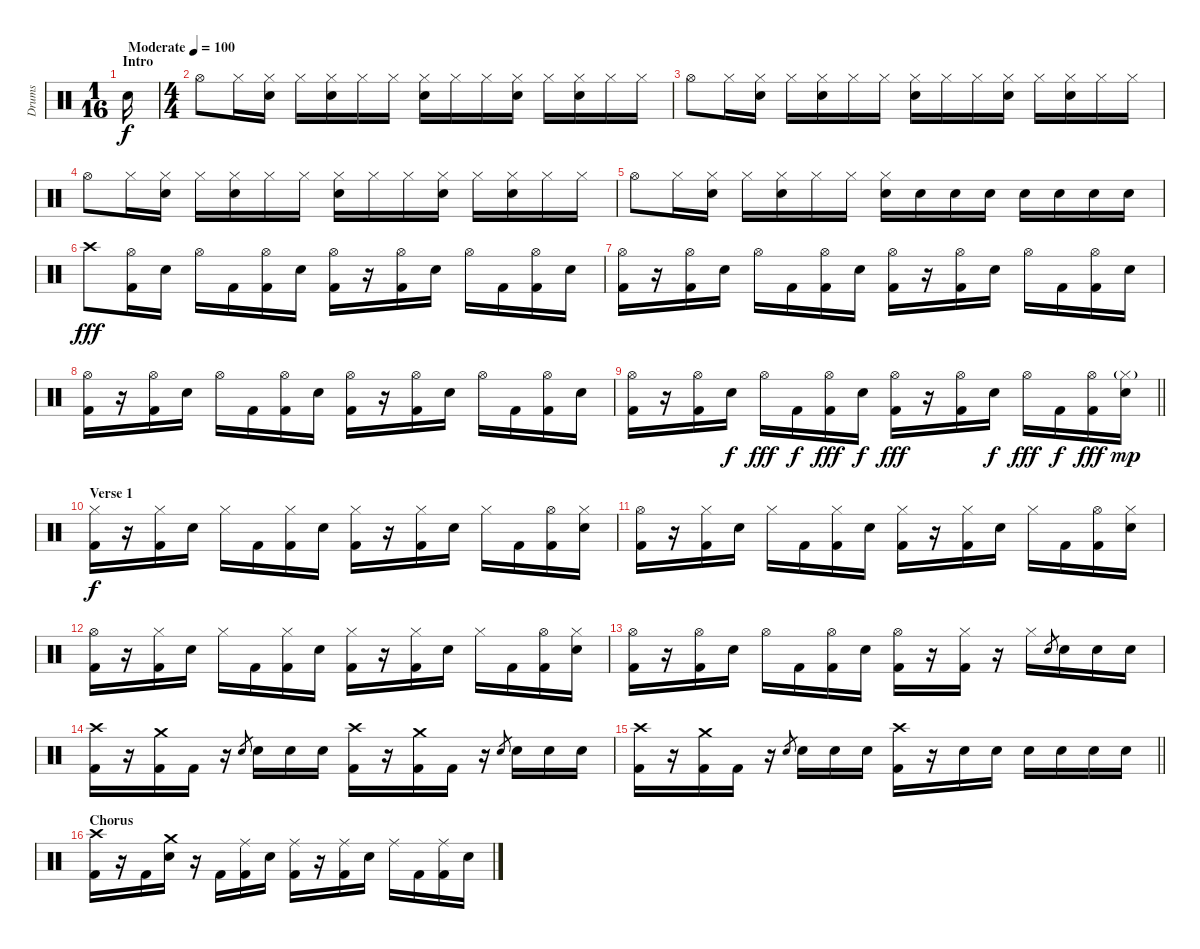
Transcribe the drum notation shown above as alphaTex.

\track ("Drums" "Drums") {instrument percussion}
\staff {score}
\articulation defaults
\ts (1 16)
\section ("" "Intro")
\tempo (100 "Moderate")
\clef neutral
\ks c "Electric Snare (hit)".16{dy f}
|
\ts (4 4)
"Hi-Hat (open)".8 "Hi-Hat (closed)".16 ("Hi-Hat (closed)" "Electric Snare (hit)").16 "Hi-Hat (closed)".16 ("Hi-Hat (closed)" "Electric Snare (hit)").16 "Hi-Hat (closed)".16 "Hi-Hat (closed)".16 ("Hi-Hat (closed)" "Electric Snare (hit)").16 "Hi-Hat (closed)".16 "Hi-Hat (closed)".16 ("Hi-Hat (closed)" "Electric Snare (hit)").16 "Hi-Hat (closed)".16 ("Hi-Hat (closed)" "Electric Snare (hit)").16 "Hi-Hat (closed)".16 "Hi-Hat (closed)".16 |
"Hi-Hat (open)".8 "Hi-Hat (closed)".16 ("Hi-Hat (closed)" "Electric Snare (hit)").16 "Hi-Hat (closed)".16 ("Hi-Hat (closed)" "Electric Snare (hit)").16 "Hi-Hat (closed)".16 "Hi-Hat (closed)".16 ("Hi-Hat (closed)" "Electric Snare (hit)").16 "Hi-Hat (closed)".16 "Hi-Hat (closed)".16 ("Hi-Hat (closed)" "Electric Snare (hit)").16 "Hi-Hat (closed)".16 ("Hi-Hat (closed)" "Electric Snare (hit)").16 "Hi-Hat (closed)".16 "Hi-Hat (closed)".16 |
"Hi-Hat (open)".8 "Hi-Hat (closed)".16 ("Hi-Hat (closed)" "Electric Snare (hit)").16 "Hi-Hat (closed)".16 ("Hi-Hat (closed)" "Electric Snare (hit)").16 "Hi-Hat (closed)".16 "Hi-Hat (closed)".16 ("Hi-Hat (closed)" "Electric Snare (hit)").16 "Hi-Hat (closed)".16 "Hi-Hat (closed)".16 ("Hi-Hat (closed)" "Electric Snare (hit)").16 "Hi-Hat (closed)".16 ("Hi-Hat (closed)" "Electric Snare (hit)").16 "Hi-Hat (closed)".16 "Hi-Hat (closed)".16 |
"Hi-Hat (open)".8 "Hi-Hat (closed)".16 ("Hi-Hat (closed)" "Electric Snare (hit)").16 "Hi-Hat (closed)".16 ("Hi-Hat (closed)" "Electric Snare (hit)").16 "Hi-Hat (closed)".16 "Hi-Hat (closed)".16 ("Hi-Hat (closed)" "Electric Snare (hit)").16 "Electric Snare (hit)".16 "Electric Snare (hit)".16 "Electric Snare (hit)".16 "Electric Snare (hit)".16 "Electric Snare (hit)".16 "Electric Snare (hit)".16 "Electric Snare (hit)".16 |
"Crash high (hit)".8{dy fff} ("Hi-Hat (open)" "Kick (hit) 2").16 "Electric Snare (hit)".16 "Hi-Hat (open)".16 "Kick (hit) 2".16 ("Hi-Hat (open)" "Kick (hit) 2").16 "Electric Snare (hit)".16 ("Hi-Hat (open)" "Kick (hit) 2").16 r.16 ("Hi-Hat (open)" "Kick (hit) 2").16 "Electric Snare (hit)".16 "Hi-Hat (open)".16 "Kick (hit) 2".16 ("Hi-Hat (open)" "Kick (hit) 2").16 "Electric Snare (hit)".16 |
("Hi-Hat (open)" "Kick (hit) 2").16 r.16 ("Hi-Hat (open)" "Kick (hit) 2").16 "Electric Snare (hit)".16 "Hi-Hat (open)".16 "Kick (hit) 2".16 ("Hi-Hat (open)" "Kick (hit) 2").16 "Electric Snare (hit)".16 ("Hi-Hat (open)" "Kick (hit) 2").16 r.16 ("Hi-Hat (open)" "Kick (hit) 2").16 "Electric Snare (hit)".16 "Hi-Hat (open)".16 "Kick (hit) 2".16 ("Hi-Hat (open)" "Kick (hit) 2").16 "Electric Snare (hit)".16 |
("Hi-Hat (open)" "Kick (hit) 2").16 r.16 ("Hi-Hat (open)" "Kick (hit) 2").16 "Electric Snare (hit)".16 "Hi-Hat (open)".16 "Kick (hit) 2".16 ("Hi-Hat (open)" "Kick (hit) 2").16 "Electric Snare (hit)".16 ("Hi-Hat (open)" "Kick (hit) 2").16 r.16 ("Hi-Hat (open)" "Kick (hit) 2").16 "Electric Snare (hit)".16 "Hi-Hat (open)".16 "Kick (hit) 2".16 ("Hi-Hat (open)" "Kick (hit) 2").16 "Electric Snare (hit)".16 |
\barLineRight lightlight
("Hi-Hat (open)" "Kick (hit) 2").16 r.16 ("Hi-Hat (open)" "Kick (hit) 2").16 "Electric Snare (hit)".16{dy f} "Hi-Hat (open)".16{dy fff} "Kick (hit) 2".16{dy f} ("Hi-Hat (open)" "Kick (hit) 2").16{dy fff} "Electric Snare (hit)".16{dy f} ("Hi-Hat (open)" "Kick (hit) 2").16{dy fff} r.16 ("Hi-Hat (open)" "Kick (hit) 2").16 "Electric Snare (hit)".16{dy f} "Hi-Hat (open)".16{dy fff} "Kick (hit) 2".16{dy f} ("Hi-Hat (open)" "Kick (hit) 2").16{dy fff} ("Hi-Hat (closed)"{g} "Electric Snare (hit)").16{dy mp} |
\section ("" "Verse 1")
("Hi-Hat (closed)" "Kick (hit) 2").16{dy f} r.16 ("Hi-Hat (closed)" "Kick (hit) 2").16 "Electric Snare (hit)".16 "Hi-Hat (closed)".16 "Kick (hit) 2".16 ("Hi-Hat (closed)" "Kick (hit) 2").16 "Electric Snare (hit)".16 ("Hi-Hat (closed)" "Kick (hit) 2").16 r.16 ("Hi-Hat (closed)" "Kick (hit) 2").16 "Electric Snare (hit)".16 "Hi-Hat (closed)".16 "Kick (hit) 2".16 ("Hi-Hat (open)" "Kick (hit) 2").16 ("Hi-Hat (closed)" "Electric Snare (hit)").16 |
("Hi-Hat (open)" "Kick (hit) 2").16 r.16 ("Hi-Hat (closed)" "Kick (hit) 2").16 "Electric Snare (hit)".16 "Hi-Hat (closed)".16 "Kick (hit) 2".16 ("Hi-Hat (closed)" "Kick (hit) 2").16 "Electric Snare (hit)".16 ("Hi-Hat (closed)" "Kick (hit) 2").16 r.16 ("Hi-Hat (closed)" "Kick (hit) 2").16 "Electric Snare (hit)".16 "Hi-Hat (closed)".16 "Kick (hit) 2".16 ("Hi-Hat (open)" "Kick (hit) 2").16 ("Hi-Hat (closed)" "Electric Snare (hit)").16 |
("Hi-Hat (open)" "Kick (hit) 2").16 r.16 ("Hi-Hat (closed)" "Kick (hit) 2").16 "Electric Snare (hit)".16 "Hi-Hat (closed)".16 "Kick (hit) 2".16 ("Hi-Hat (closed)" "Kick (hit) 2").16 "Electric Snare (hit)".16 ("Hi-Hat (closed)" "Kick (hit) 2").16 r.16 ("Hi-Hat (closed)" "Kick (hit) 2").16 "Electric Snare (hit)".16 "Hi-Hat (closed)".16 "Kick (hit) 2".16 ("Hi-Hat (open)" "Kick (hit) 2").16 ("Hi-Hat (closed)" "Electric Snare (hit)").16 |
("Hi-Hat (open)" "Kick (hit) 2").16 r.16 ("Hi-Hat (open)" "Kick (hit) 2").16 "Electric Snare (hit)".16 "Hi-Hat (open)".16 "Kick (hit) 2".16 ("Hi-Hat (open)" "Kick (hit) 2").16 "Electric Snare (hit)".16 ("Hi-Hat (open)" "Kick (hit) 2").16 r.16 ("Hi-Hat (closed)" "Kick (hit) 2").16 r.16 "Hi-Hat (closed)".16 "Electric Snare (hit)".8{gr} "Electric Snare (hit)".16 "Electric Snare (hit)".16 "Electric Snare (hit)".16 |
("Crash high (hit)" "Kick (hit) 2").16 r.16 ("Crash medium (hit)" "Kick (hit) 2").16 "Kick (hit) 2".16 r.16 "Electric Snare (hit)".8{gr} "Electric Snare (hit)".16 "Electric Snare (hit)".16 "Electric Snare (hit)".16 ("Crash high (hit)" "Kick (hit) 2").16 r.16 ("Crash medium (hit)" "Kick (hit) 2").16 "Kick (hit) 2".16 r.16 "Electric Snare (hit)".8{gr} "Electric Snare (hit)".16 "Electric Snare (hit)".16 "Electric Snare (hit)".16 |
\barLineRight lightlight
("Crash high (hit)" "Kick (hit) 2").16 r.16 ("Crash medium (hit)" "Kick (hit) 2").16 "Kick (hit) 2".16 r.16 "Electric Snare (hit)".8{gr} "Electric Snare (hit)".16 "Electric Snare (hit)".16 "Electric Snare (hit)".16 ("Crash high (hit)" "Kick (hit) 2").16 r.16 "Electric Snare (hit)".16 "Electric Snare (hit)".16 "Electric Snare (hit)".16 "Electric Snare (hit)".16 "Electric Snare (hit)".16 "Electric Snare (hit)".16 |
\section ("" "Chorus")
("Crash high (hit)" "Kick (hit) 2").16 r.16 "Kick (hit) 2".16 ("Crash medium (hit)" "Electric Snare (hit)").16 r.16 "Kick (hit) 2".16 ("Ride (middle)" "Kick (hit) 2").16 "Electric Snare (hit)".16 ("Ride (middle)" "Kick (hit) 2").16 r.16 ("Ride (middle)" "Kick (hit) 2").16 "Electric Snare (hit)".16 "Ride (middle)".16 "Kick (hit) 2".16 ("Ride (middle)" "Kick (hit) 2").16 "Electric Snare (hit)".16
